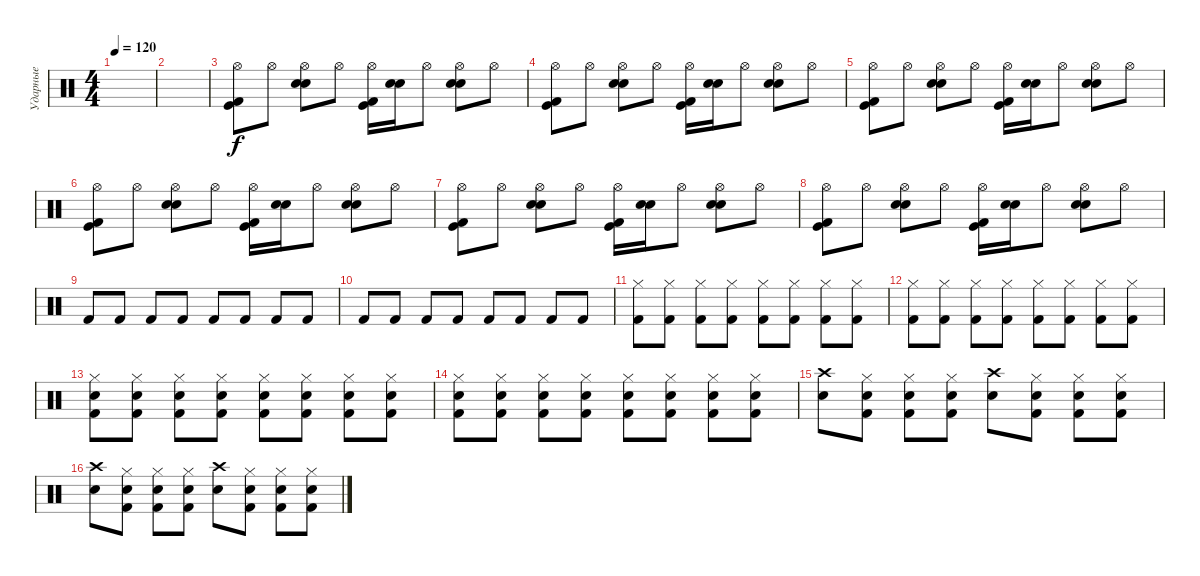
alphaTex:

\track ("Ударные" "Ударные") {instrument percussion}
\staff {score}
\articulation defaults
\ts (4 4)
\tempo 120
\clef neutral
\ks c
|
|
("Hi-Hat (open)" "Kick (hit) 2" "Kick (hit)").8 "Hi-Hat (open)".8 ("Hi-Hat (open)" "Electric Snare (hit)" "Snare (hit) 2").8 "Hi-Hat (open)".8 ("Hi-Hat (open)" "Kick (hit)" "Kick (hit) 2").16 ("Electric Snare (hit)" "Snare (hit) 2").16 "Hi-Hat (open)".8 ("Hi-Hat (open)" "Electric Snare (hit)" "Snare (hit) 2").8 "Hi-Hat (open)".8 |
("Hi-Hat (open)" "Kick (hit) 2" "Kick (hit)").8 "Hi-Hat (open)".8 ("Hi-Hat (open)" "Electric Snare (hit)" "Snare (hit) 2").8 "Hi-Hat (open)".8 ("Hi-Hat (open)" "Kick (hit)" "Kick (hit) 2").16 ("Electric Snare (hit)" "Snare (hit) 2").16 "Hi-Hat (open)".8 ("Hi-Hat (open)" "Electric Snare (hit)" "Snare (hit) 2").8 "Hi-Hat (open)".8 |
("Hi-Hat (open)" "Kick (hit) 2" "Kick (hit)").8 "Hi-Hat (open)".8 ("Hi-Hat (open)" "Electric Snare (hit)" "Snare (hit) 2").8 "Hi-Hat (open)".8 ("Hi-Hat (open)" "Kick (hit)" "Kick (hit) 2").16 ("Electric Snare (hit)" "Snare (hit) 2").16 "Hi-Hat (open)".8 ("Hi-Hat (open)" "Electric Snare (hit)" "Snare (hit) 2").8 "Hi-Hat (open)".8 |
("Hi-Hat (open)" "Kick (hit) 2" "Kick (hit)").8 "Hi-Hat (open)".8 ("Hi-Hat (open)" "Electric Snare (hit)" "Snare (hit) 2").8 "Hi-Hat (open)".8 ("Hi-Hat (open)" "Kick (hit)" "Kick (hit) 2").16 ("Electric Snare (hit)" "Snare (hit) 2").16 "Hi-Hat (open)".8 ("Hi-Hat (open)" "Electric Snare (hit)" "Snare (hit) 2").8 "Hi-Hat (open)".8 |
("Hi-Hat (open)" "Kick (hit) 2" "Kick (hit)").8 "Hi-Hat (open)".8 ("Hi-Hat (open)" "Electric Snare (hit)" "Snare (hit) 2").8 "Hi-Hat (open)".8 ("Hi-Hat (open)" "Kick (hit)" "Kick (hit) 2").16 ("Electric Snare (hit)" "Snare (hit) 2").16 "Hi-Hat (open)".8 ("Hi-Hat (open)" "Electric Snare (hit)" "Snare (hit) 2").8 "Hi-Hat (open)".8 |
("Hi-Hat (open)" "Kick (hit) 2" "Kick (hit)").8 "Hi-Hat (open)".8 ("Hi-Hat (open)" "Electric Snare (hit)" "Snare (hit) 2").8 "Hi-Hat (open)".8 ("Hi-Hat (open)" "Kick (hit)" "Kick (hit) 2").16 ("Electric Snare (hit)" "Snare (hit) 2").16 "Hi-Hat (open)".8 ("Hi-Hat (open)" "Electric Snare (hit)" "Snare (hit) 2").8 "Hi-Hat (open)".8 |
"Kick (hit) 2".8 "Kick (hit) 2".8 "Kick (hit) 2".8 "Kick (hit) 2".8 "Kick (hit) 2".8 "Kick (hit) 2".8 "Kick (hit) 2".8 "Kick (hit) 2".8 |
"Kick (hit) 2".8 "Kick (hit) 2".8 "Kick (hit) 2".8 "Kick (hit) 2".8 "Kick (hit) 2".8 "Kick (hit) 2".8 "Kick (hit) 2".8 "Kick (hit) 2".8 |
("Kick (hit) 2" "Hi-Hat (closed)").8 ("Kick (hit) 2" "Hi-Hat (closed)").8 ("Hi-Hat (closed)" "Kick (hit) 2").8 ("Hi-Hat (closed)" "Kick (hit) 2").8 ("Kick (hit) 2" "Hi-Hat (closed)").8 ("Kick (hit) 2" "Hi-Hat (closed)").8 ("Kick (hit) 2" "Hi-Hat (closed)").8 ("Kick (hit) 2" "Hi-Hat (closed)").8 |
("Kick (hit) 2" "Hi-Hat (closed)").8 ("Kick (hit) 2" "Hi-Hat (closed)").8 ("Hi-Hat (closed)" "Kick (hit) 2").8 ("Hi-Hat (closed)" "Kick (hit) 2").8 ("Kick (hit) 2" "Hi-Hat (closed)").8 ("Kick (hit) 2" "Hi-Hat (closed)").8 ("Kick (hit) 2" "Hi-Hat (closed)").8 ("Kick (hit) 2" "Hi-Hat (closed)").8 |
("Snare (hit) 2" "Kick (hit) 2" "Hi-Hat (closed)").8 ("Hi-Hat (closed)" "Snare (hit) 2" "Kick (hit) 2").8 ("Snare (hit) 2" "Kick (hit) 2" "Hi-Hat (closed)").8 ("Hi-Hat (closed)" "Snare (hit) 2" "Kick (hit) 2").8 ("Snare (hit) 2" "Kick (hit) 2" "Hi-Hat (closed)").8 ("Hi-Hat (closed)" "Snare (hit) 2" "Kick (hit) 2").8 ("Snare (hit) 2" "Kick (hit) 2" "Hi-Hat (closed)").8 ("Hi-Hat (closed)" "Snare (hit) 2" "Kick (hit) 2").8 |
("Snare (hit) 2" "Kick (hit) 2" "Hi-Hat (closed)").8 ("Hi-Hat (closed)" "Snare (hit) 2" "Kick (hit) 2").8 ("Snare (hit) 2" "Kick (hit) 2" "Hi-Hat (closed)").8 ("Hi-Hat (closed)" "Snare (hit) 2" "Kick (hit) 2").8 ("Snare (hit) 2" "Kick (hit) 2" "Hi-Hat (closed)").8 ("Hi-Hat (closed)" "Snare (hit) 2" "Kick (hit) 2").8 ("Snare (hit) 2" "Kick (hit) 2" "Hi-Hat (closed)").8 ("Hi-Hat (closed)" "Snare (hit) 2" "Kick (hit) 2").8 |
("Crash high (hit)" "Snare (hit) 2").8 ("Kick (hit) 2" "Snare (hit) 2" "Hi-Hat (closed)").8 ("Hi-Hat (closed)" "Snare (hit) 2" "Kick (hit) 2").8 ("Kick (hit) 2" "Snare (hit) 2" "Hi-Hat (closed)").8 ("Crash high (hit)" "Snare (hit) 2").8 ("Snare (hit) 2" "Kick (hit) 2" "Hi-Hat (closed)").8 ("Hi-Hat (closed)" "Snare (hit) 2" "Kick (hit) 2").8 ("Snare (hit) 2" "Kick (hit) 2" "Hi-Hat (closed)").8 |
("Crash high (hit)" "Snare (hit) 2").8 ("Kick (hit) 2" "Snare (hit) 2" "Hi-Hat (closed)").8 ("Hi-Hat (closed)" "Snare (hit) 2" "Kick (hit) 2").8 ("Kick (hit) 2" "Snare (hit) 2" "Hi-Hat (closed)").8 ("Crash high (hit)" "Snare (hit) 2").8 ("Snare (hit) 2" "Kick (hit) 2" "Hi-Hat (closed)").8 ("Hi-Hat (closed)" "Snare (hit) 2" "Kick (hit) 2").8 ("Snare (hit) 2" "Kick (hit) 2" "Hi-Hat (closed)").8
